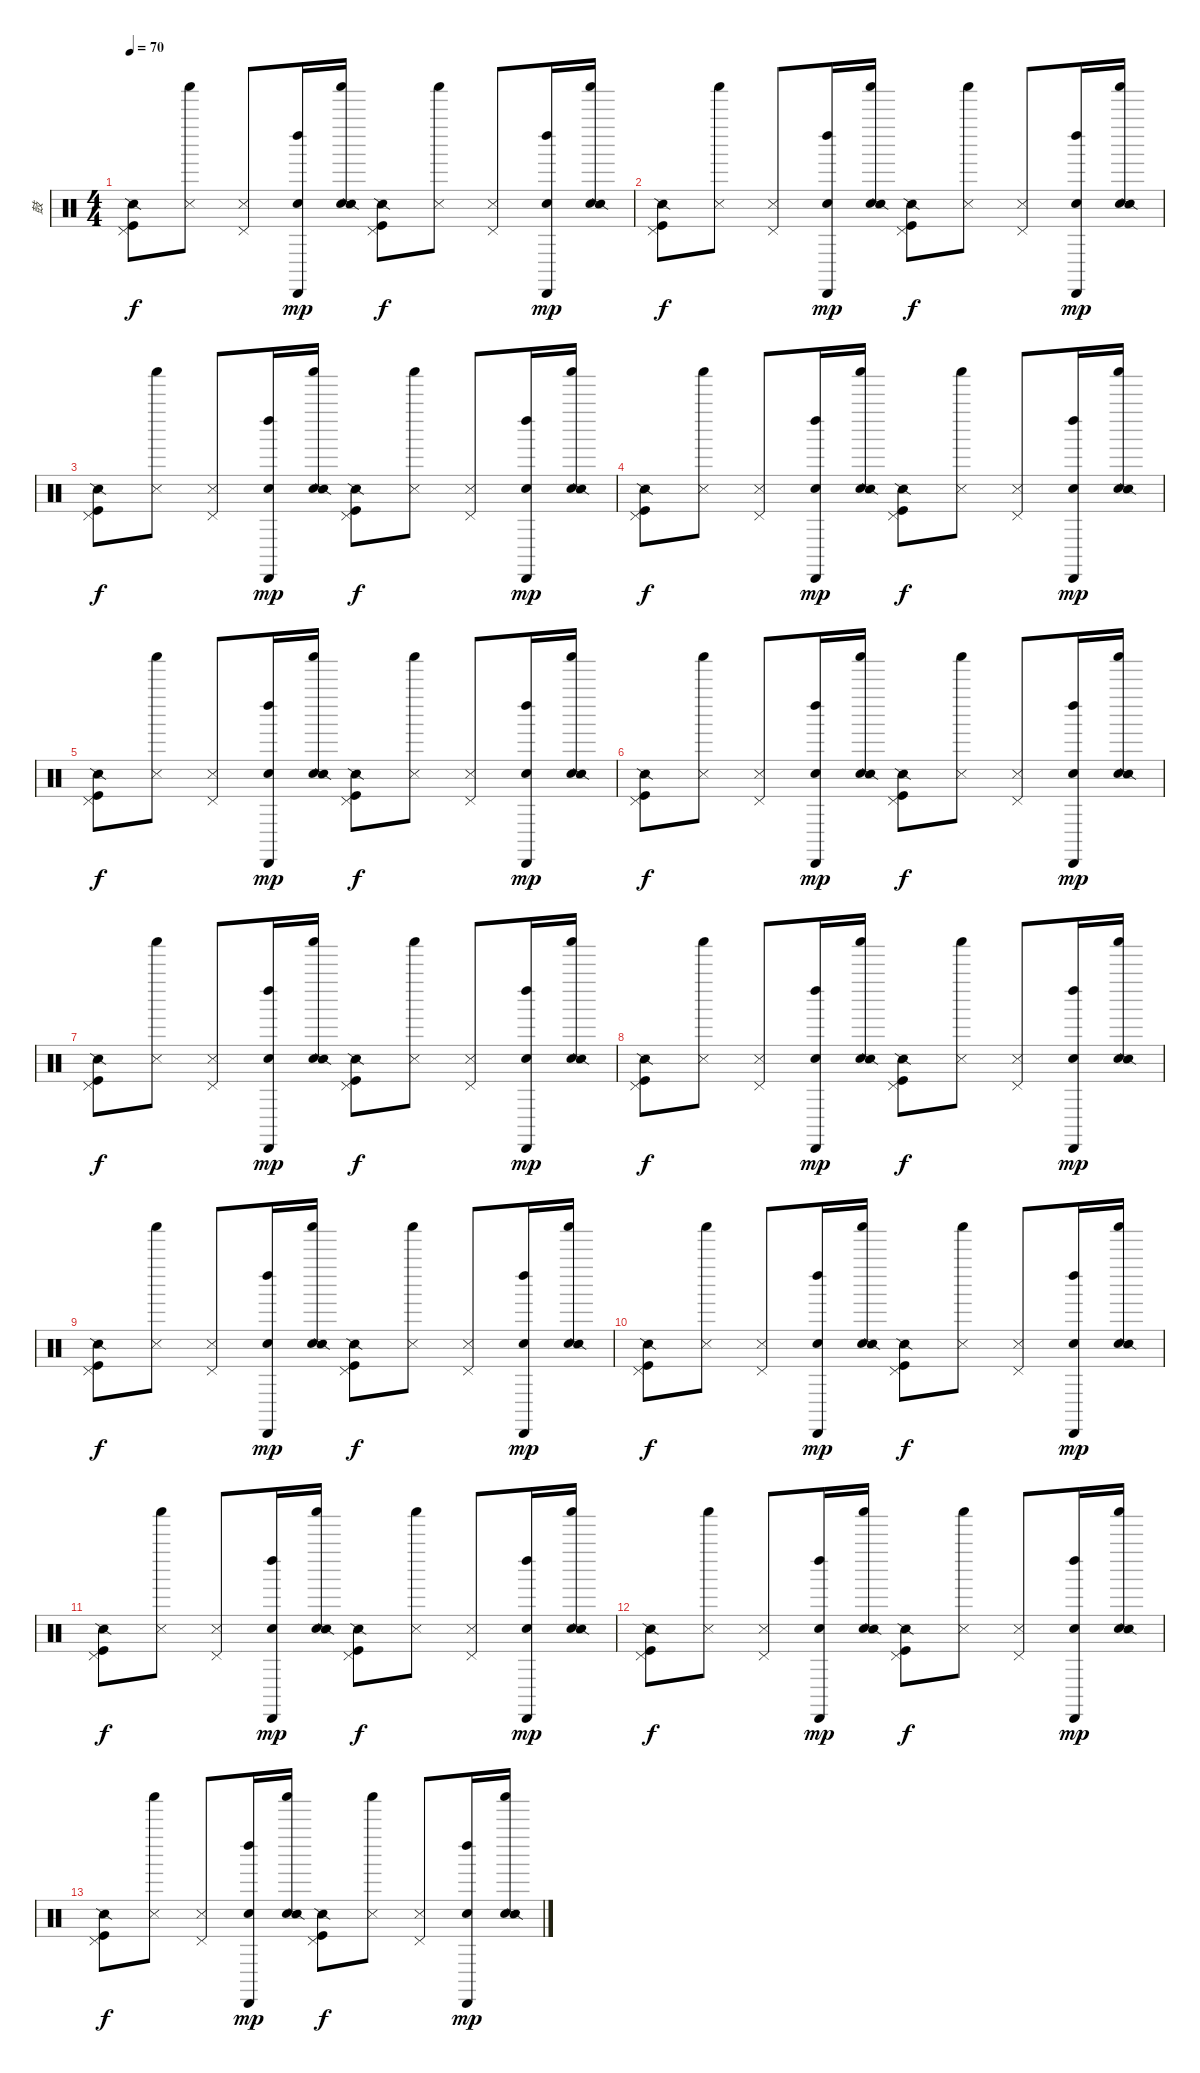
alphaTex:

\track ("鼓" "鼓") {instrument percussion}
\staff {score}
\articulation defaults
\ts (4 4)
\tempo 70
\clef neutral
\ks c
("Kick (hit)" "Snare (side stick) 2" "Pedal Hi-Hat (hit)").8{dy f} ("Snare (side stick) 3" "Shaker (hit)").8 ("Snare (side stick) 3" "Pedal Hi-Hat (hit)").8 ("Hand Clap (hit)" "Left Maraca (hit)" "Cabasa (hit)").16{dy mp} ("Hand Clap (hit)" "Snare (side stick) 2" "Shaker (hit)").16 ("Kick (hit)" "Snare (side stick) 2" "Pedal Hi-Hat (hit)").8{dy f} ("Snare (side stick) 3" "Shaker (hit)").8 ("Snare (side stick) 3" "Pedal Hi-Hat (hit)").8 ("Hand Clap (hit)" "Left Maraca (hit)" "Cabasa (hit)").16{dy mp} ("Hand Clap (hit)" "Snare (side stick) 2" "Shaker (hit)").16 |
("Kick (hit)" "Snare (side stick) 2" "Pedal Hi-Hat (hit)").8{dy f} ("Snare (side stick) 3" "Shaker (hit)").8 ("Snare (side stick) 3" "Pedal Hi-Hat (hit)").8 ("Hand Clap (hit)" "Left Maraca (hit)" "Cabasa (hit)").16{dy mp} ("Hand Clap (hit)" "Snare (side stick) 2" "Shaker (hit)").16 ("Kick (hit)" "Snare (side stick) 2" "Pedal Hi-Hat (hit)").8{dy f} ("Snare (side stick) 3" "Shaker (hit)").8 ("Snare (side stick) 3" "Pedal Hi-Hat (hit)").8 ("Hand Clap (hit)" "Left Maraca (hit)" "Cabasa (hit)").16{dy mp} ("Hand Clap (hit)" "Snare (side stick) 2" "Shaker (hit)").16 |
("Kick (hit)" "Snare (side stick) 2" "Pedal Hi-Hat (hit)").8{dy f} ("Snare (side stick) 3" "Shaker (hit)").8 ("Snare (side stick) 3" "Pedal Hi-Hat (hit)").8 ("Hand Clap (hit)" "Left Maraca (hit)" "Cabasa (hit)").16{dy mp} ("Hand Clap (hit)" "Snare (side stick) 2" "Shaker (hit)").16 ("Kick (hit)" "Snare (side stick) 2" "Pedal Hi-Hat (hit)").8{dy f} ("Snare (side stick) 3" "Shaker (hit)").8 ("Snare (side stick) 3" "Pedal Hi-Hat (hit)").8 ("Hand Clap (hit)" "Left Maraca (hit)" "Cabasa (hit)").16{dy mp} ("Hand Clap (hit)" "Snare (side stick) 2" "Shaker (hit)").16 |
("Kick (hit)" "Snare (side stick) 2" "Pedal Hi-Hat (hit)").8{dy f} ("Snare (side stick) 3" "Shaker (hit)").8 ("Snare (side stick) 3" "Pedal Hi-Hat (hit)").8 ("Hand Clap (hit)" "Left Maraca (hit)" "Cabasa (hit)").16{dy mp} ("Hand Clap (hit)" "Snare (side stick) 2" "Shaker (hit)").16 ("Kick (hit)" "Snare (side stick) 2" "Pedal Hi-Hat (hit)").8{dy f} ("Snare (side stick) 3" "Shaker (hit)").8 ("Snare (side stick) 3" "Pedal Hi-Hat (hit)").8 ("Hand Clap (hit)" "Left Maraca (hit)" "Cabasa (hit)").16{dy mp} ("Hand Clap (hit)" "Snare (side stick) 2" "Shaker (hit)").16 |
("Kick (hit)" "Snare (side stick) 2" "Pedal Hi-Hat (hit)").8{dy f} ("Snare (side stick) 3" "Shaker (hit)").8 ("Snare (side stick) 3" "Pedal Hi-Hat (hit)").8 ("Hand Clap (hit)" "Left Maraca (hit)" "Cabasa (hit)").16{dy mp} ("Hand Clap (hit)" "Snare (side stick) 2" "Shaker (hit)").16 ("Kick (hit)" "Snare (side stick) 2" "Pedal Hi-Hat (hit)").8{dy f} ("Snare (side stick) 3" "Shaker (hit)").8 ("Snare (side stick) 3" "Pedal Hi-Hat (hit)").8 ("Hand Clap (hit)" "Left Maraca (hit)" "Cabasa (hit)").16{dy mp} ("Hand Clap (hit)" "Snare (side stick) 2" "Shaker (hit)").16 |
("Kick (hit)" "Snare (side stick) 2" "Pedal Hi-Hat (hit)").8{dy f} ("Snare (side stick) 3" "Shaker (hit)").8 ("Snare (side stick) 3" "Pedal Hi-Hat (hit)").8 ("Hand Clap (hit)" "Left Maraca (hit)" "Cabasa (hit)").16{dy mp} ("Hand Clap (hit)" "Snare (side stick) 2" "Shaker (hit)").16 ("Kick (hit)" "Snare (side stick) 2" "Pedal Hi-Hat (hit)").8{dy f} ("Snare (side stick) 3" "Shaker (hit)").8 ("Snare (side stick) 3" "Pedal Hi-Hat (hit)").8 ("Hand Clap (hit)" "Left Maraca (hit)" "Cabasa (hit)").16{dy mp} ("Hand Clap (hit)" "Snare (side stick) 2" "Shaker (hit)").16 |
("Kick (hit)" "Snare (side stick) 2" "Pedal Hi-Hat (hit)").8{dy f} ("Snare (side stick) 3" "Shaker (hit)").8 ("Snare (side stick) 3" "Pedal Hi-Hat (hit)").8 ("Hand Clap (hit)" "Left Maraca (hit)" "Cabasa (hit)").16{dy mp} ("Hand Clap (hit)" "Snare (side stick) 2" "Shaker (hit)").16 ("Kick (hit)" "Snare (side stick) 2" "Pedal Hi-Hat (hit)").8{dy f} ("Snare (side stick) 3" "Shaker (hit)").8 ("Snare (side stick) 3" "Pedal Hi-Hat (hit)").8 ("Hand Clap (hit)" "Left Maraca (hit)" "Cabasa (hit)").16{dy mp} ("Hand Clap (hit)" "Snare (side stick) 2" "Shaker (hit)").16 |
("Kick (hit)" "Snare (side stick) 2" "Pedal Hi-Hat (hit)").8{dy f} ("Snare (side stick) 3" "Shaker (hit)").8 ("Snare (side stick) 3" "Pedal Hi-Hat (hit)").8 ("Hand Clap (hit)" "Left Maraca (hit)" "Cabasa (hit)").16{dy mp} ("Hand Clap (hit)" "Snare (side stick) 2" "Shaker (hit)").16 ("Kick (hit)" "Snare (side stick) 2" "Pedal Hi-Hat (hit)").8{dy f} ("Snare (side stick) 3" "Shaker (hit)").8 ("Snare (side stick) 3" "Pedal Hi-Hat (hit)").8 ("Hand Clap (hit)" "Left Maraca (hit)" "Cabasa (hit)").16{dy mp} ("Hand Clap (hit)" "Snare (side stick) 2" "Shaker (hit)").16 |
("Kick (hit)" "Snare (side stick) 2" "Pedal Hi-Hat (hit)").8{dy f} ("Snare (side stick) 3" "Shaker (hit)").8 ("Snare (side stick) 3" "Pedal Hi-Hat (hit)").8 ("Hand Clap (hit)" "Left Maraca (hit)" "Cabasa (hit)").16{dy mp} ("Hand Clap (hit)" "Snare (side stick) 2" "Shaker (hit)").16 ("Kick (hit)" "Snare (side stick) 2" "Pedal Hi-Hat (hit)").8{dy f} ("Snare (side stick) 3" "Shaker (hit)").8 ("Snare (side stick) 3" "Pedal Hi-Hat (hit)").8 ("Hand Clap (hit)" "Left Maraca (hit)" "Cabasa (hit)").16{dy mp} ("Hand Clap (hit)" "Snare (side stick) 2" "Shaker (hit)").16 |
("Kick (hit)" "Snare (side stick) 2" "Pedal Hi-Hat (hit)").8{dy f} ("Snare (side stick) 3" "Shaker (hit)").8 ("Snare (side stick) 3" "Pedal Hi-Hat (hit)").8 ("Hand Clap (hit)" "Left Maraca (hit)" "Cabasa (hit)").16{dy mp} ("Hand Clap (hit)" "Snare (side stick) 2" "Shaker (hit)").16 ("Kick (hit)" "Snare (side stick) 2" "Pedal Hi-Hat (hit)").8{dy f} ("Snare (side stick) 3" "Shaker (hit)").8 ("Snare (side stick) 3" "Pedal Hi-Hat (hit)").8 ("Hand Clap (hit)" "Left Maraca (hit)" "Cabasa (hit)").16{dy mp} ("Hand Clap (hit)" "Snare (side stick) 2" "Shaker (hit)").16 |
("Kick (hit)" "Snare (side stick) 2" "Pedal Hi-Hat (hit)").8{dy f} ("Snare (side stick) 3" "Shaker (hit)").8 ("Snare (side stick) 3" "Pedal Hi-Hat (hit)").8 ("Hand Clap (hit)" "Left Maraca (hit)" "Cabasa (hit)").16{dy mp} ("Hand Clap (hit)" "Snare (side stick) 2" "Shaker (hit)").16 ("Kick (hit)" "Snare (side stick) 2" "Pedal Hi-Hat (hit)").8{dy f} ("Snare (side stick) 3" "Shaker (hit)").8 ("Snare (side stick) 3" "Pedal Hi-Hat (hit)").8 ("Hand Clap (hit)" "Left Maraca (hit)" "Cabasa (hit)").16{dy mp} ("Hand Clap (hit)" "Snare (side stick) 2" "Shaker (hit)").16 |
("Kick (hit)" "Snare (side stick) 2" "Pedal Hi-Hat (hit)").8{dy f} ("Snare (side stick) 3" "Shaker (hit)").8 ("Snare (side stick) 3" "Pedal Hi-Hat (hit)").8 ("Hand Clap (hit)" "Left Maraca (hit)" "Cabasa (hit)").16{dy mp} ("Hand Clap (hit)" "Snare (side stick) 2" "Shaker (hit)").16 ("Kick (hit)" "Snare (side stick) 2" "Pedal Hi-Hat (hit)").8{dy f} ("Snare (side stick) 3" "Shaker (hit)").8 ("Snare (side stick) 3" "Pedal Hi-Hat (hit)").8 ("Hand Clap (hit)" "Left Maraca (hit)" "Cabasa (hit)").16{dy mp} ("Hand Clap (hit)" "Snare (side stick) 2" "Shaker (hit)").16 |
("Kick (hit)" "Snare (side stick) 2" "Pedal Hi-Hat (hit)").8{dy f} ("Snare (side stick) 3" "Shaker (hit)").8 ("Snare (side stick) 3" "Pedal Hi-Hat (hit)").8 ("Hand Clap (hit)" "Left Maraca (hit)" "Cabasa (hit)").16{dy mp} ("Hand Clap (hit)" "Snare (side stick) 2" "Shaker (hit)").16 ("Kick (hit)" "Snare (side stick) 2" "Pedal Hi-Hat (hit)").8{dy f} ("Snare (side stick) 3" "Shaker (hit)").8 ("Snare (side stick) 3" "Pedal Hi-Hat (hit)").8 ("Hand Clap (hit)" "Left Maraca (hit)" "Cabasa (hit)").16{dy mp} ("Hand Clap (hit)" "Snare (side stick) 2" "Shaker (hit)").16
